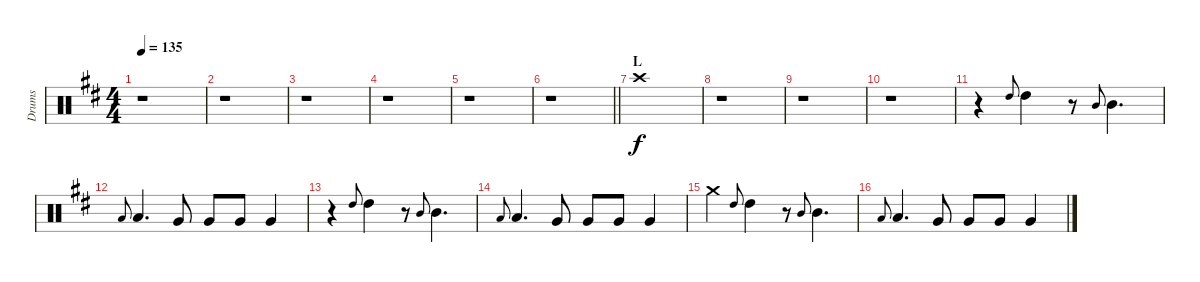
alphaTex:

\track ("Drums" "Drums") {instrument percussion}
\staff {score}
\articulation defaults
\ts (4 4)
\tempo 135
\clef neutral
\ks d
r.1{dy f} |
r.1 |
r.1 |
r.1 |
r.1 |
\barLineRight lightlight
r.1 |
\section ("" "L")
"Crash high (hit)".1 |
r.1 |
r.1 |
r.1 |
r.4 "High Tom (hit)".8{gr onbeat} "High Tom (hit)".4 r.8 "Mid Tom (hit)".8{gr onbeat} "Mid Tom (hit)".4{d} |
"Low Tom (hit)".8{gr onbeat} "Low Tom (hit)".4{d} "Very Low Tom (hit)".8 "Very Low Tom (hit)".8 "Very Low Tom (hit)".8 "Very Low Tom (hit)".4 |
r.4 "High Tom (hit)".8{gr onbeat} "High Tom (hit)".4 r.8 "Mid Tom (hit)".8{gr onbeat} "Mid Tom (hit)".4{d} |
"Low Tom (hit)".8{gr onbeat} "Low Tom (hit)".4{d} "Very Low Tom (hit)".8 "Very Low Tom (hit)".8 "Very Low Tom (hit)".8 "Very Low Tom (hit)".4 |
"Crash medium (hit)".4 "High Tom (hit)".8{gr onbeat} "High Tom (hit)".4 r.8 "Mid Tom (hit)".8{gr onbeat} "Mid Tom (hit)".4{d} |
"Low Tom (hit)".8{gr onbeat} "Low Tom (hit)".4{d} "Very Low Tom (hit)".8 "Very Low Tom (hit)".8 "Very Low Tom (hit)".8 "Very Low Tom (hit)".4
